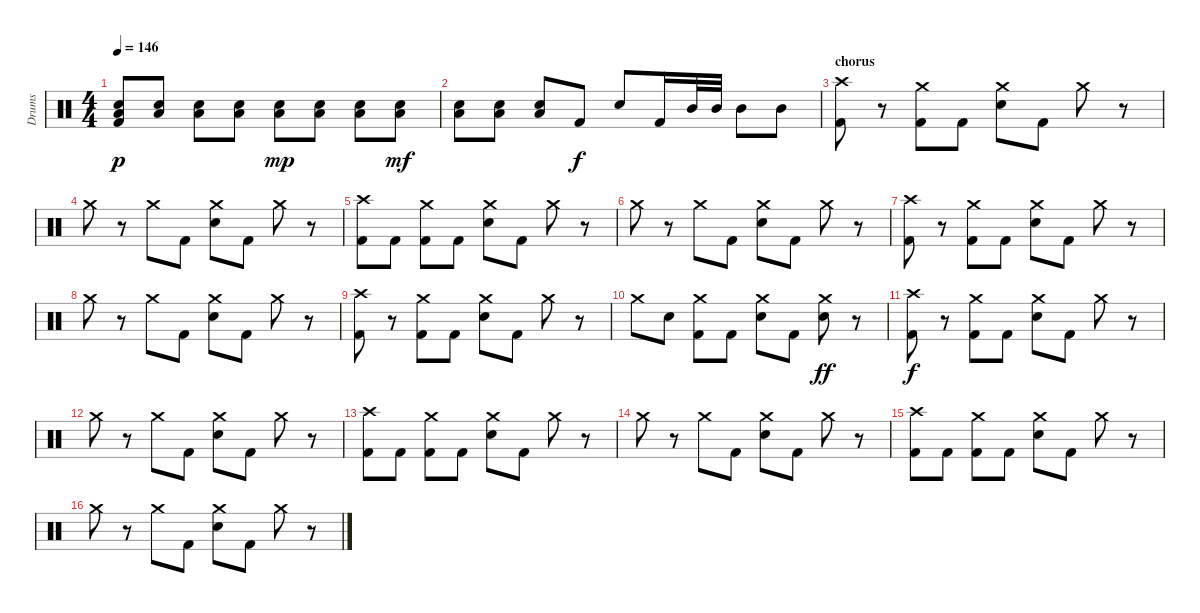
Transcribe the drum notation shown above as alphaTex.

\track ("Drums" "Drums") {instrument percussion}
\staff {score}
\articulation defaults
\ts (4 4)
\tempo 146
\clef neutral
\ks c
("Electric Snare (hit)" "Low Floor Tom (hit)" "Kick (hit) 2").8{dy p} ("Electric Snare (hit)" "Low Floor Tom (hit)").8 ("Electric Snare (hit)" "Low Floor Tom (hit)").8 ("Electric Snare (hit)" "Low Floor Tom (hit)").8 ("Electric Snare (hit)" "Low Floor Tom (hit)").8{dy mp} ("Electric Snare (hit)" "Low Floor Tom (hit)").8 ("Electric Snare (hit)" "Low Floor Tom (hit)").8 ("Electric Snare (hit)" "Low Floor Tom (hit)").8{dy mf} |
("Electric Snare (hit)" "Low Floor Tom (hit)").8 ("Electric Snare (hit)" "Low Floor Tom (hit)").8 ("Electric Snare (hit)" "Low Floor Tom (hit)").8 "Kick (hit) 2".8{dy f} "Electric Snare (hit)".8 "Kick (hit) 2".16 "Mid Tom (hit)".32 "Mid Tom (hit)".32 "Mid Tom (hit)".8 "Mid Tom (hit)".8 |
\section ("" "chorus")
("Crash high (hit)" "Kick (hit) 2").8 r.8 ("Crash medium (hit)" "Kick (hit) 2").8 "Kick (hit) 2".8 ("Crash medium (hit)" "Electric Snare (hit)").8 "Kick (hit) 2".8 "Crash medium (hit)".8 r.8 |
"Crash medium (hit)".8 r.8 "Crash medium (hit)".8 "Kick (hit) 2".8 ("Crash medium (hit)" "Electric Snare (hit)").8 "Kick (hit) 2".8 "Crash medium (hit)".8 r.8 |
("Crash high (hit)" "Kick (hit) 2").8 "Kick (hit) 2".8 ("Crash medium (hit)" "Kick (hit) 2").8 "Kick (hit) 2".8 ("Crash medium (hit)" "Electric Snare (hit)").8 "Kick (hit) 2".8 "Crash medium (hit)".8 r.8 |
"Crash medium (hit)".8 r.8 "Crash medium (hit)".8 "Kick (hit) 2".8 ("Crash medium (hit)" "Electric Snare (hit)").8 "Kick (hit) 2".8 "Crash medium (hit)".8 r.8 |
("Crash high (hit)" "Kick (hit) 2").8 r.8 ("Crash medium (hit)" "Kick (hit) 2").8 "Kick (hit) 2".8 ("Crash medium (hit)" "Electric Snare (hit)").8 "Kick (hit) 2".8 "Crash medium (hit)".8 r.8 |
"Crash medium (hit)".8 r.8 "Crash medium (hit)".8 "Kick (hit) 2".8 ("Crash medium (hit)" "Electric Snare (hit)").8 "Kick (hit) 2".8 "Crash medium (hit)".8 r.8 |
("Crash high (hit)" "Kick (hit) 2").8 r.8 ("Crash medium (hit)" "Kick (hit) 2").8 "Kick (hit) 2".8 ("Crash medium (hit)" "Electric Snare (hit)").8 "Kick (hit) 2".8 "Crash medium (hit)".8 r.8 |
"Crash medium (hit)".8 "Electric Snare (hit)".8 ("Crash medium (hit)" "Kick (hit) 2").8 "Kick (hit) 2".8 ("Crash medium (hit)" "Electric Snare (hit)").8 "Kick (hit) 2".8 ("Crash medium (hit)" "Electric Snare (hit)").8{dy ff} r.8 |
("Crash high (hit)" "Kick (hit) 2").8{dy f} r.8 ("Crash medium (hit)" "Kick (hit) 2").8 "Kick (hit) 2".8 ("Crash medium (hit)" "Electric Snare (hit)").8 "Kick (hit) 2".8 "Crash medium (hit)".8 r.8 |
"Crash medium (hit)".8 r.8 "Crash medium (hit)".8 "Kick (hit) 2".8 ("Crash medium (hit)" "Electric Snare (hit)").8 "Kick (hit) 2".8 "Crash medium (hit)".8 r.8 |
("Crash high (hit)" "Kick (hit) 2").8 "Kick (hit) 2".8 ("Crash medium (hit)" "Kick (hit) 2").8 "Kick (hit) 2".8 ("Crash medium (hit)" "Electric Snare (hit)").8 "Kick (hit) 2".8 "Crash medium (hit)".8 r.8 |
"Crash medium (hit)".8 r.8 "Crash medium (hit)".8 "Kick (hit) 2".8 ("Crash medium (hit)" "Electric Snare (hit)").8 "Kick (hit) 2".8 "Crash medium (hit)".8 r.8 |
("Crash high (hit)" "Kick (hit) 2").8 "Kick (hit) 2".8 ("Crash medium (hit)" "Kick (hit) 2").8 "Kick (hit) 2".8 ("Crash medium (hit)" "Electric Snare (hit)").8 "Kick (hit) 2".8 "Crash medium (hit)".8 r.8 |
"Crash medium (hit)".8 r.8 "Crash medium (hit)".8 "Kick (hit) 2".8 ("Crash medium (hit)" "Electric Snare (hit)").8 "Kick (hit) 2".8 "Crash medium (hit)".8 r.8
